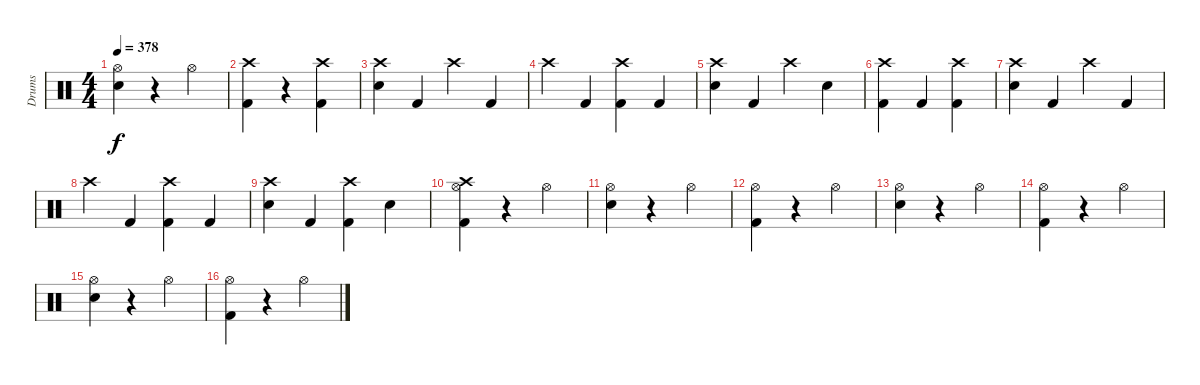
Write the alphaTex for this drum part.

\track ("Drums" "Drums") {instrument percussion}
\staff {score}
\articulation defaults
\ts (4 4)
\tempo 378
\clef neutral
\ks c
("Hi-Hat (open)" "Electric Snare (hit)").4{dy f} r.4 "Hi-Hat (open)".4 |
("Crash high (hit)" "Kick (hit) 2").4 r.4 ("Crash high (hit)" "Kick (hit) 2").4 |
("Crash high (hit)" "Electric Snare (hit)").4 "Kick (hit) 2".4 "Crash high (hit)".4 "Kick (hit) 2".4 |
"Crash high (hit)".4 "Kick (hit) 2".4 ("Crash high (hit)" "Kick (hit) 2").4 "Kick (hit) 2".4 |
("Crash high (hit)" "Electric Snare (hit)").4 "Kick (hit) 2".4 "Crash high (hit)".4 "Electric Snare (hit)".4 |
("Crash high (hit)" "Kick (hit) 2").4 "Kick (hit) 2".4 ("Crash high (hit)" "Kick (hit) 2").4 |
("Crash high (hit)" "Electric Snare (hit)").4 "Kick (hit) 2".4 "Crash high (hit)".4 "Kick (hit) 2".4 |
"Crash high (hit)".4 "Kick (hit) 2".4 ("Crash high (hit)" "Kick (hit) 2").4 "Kick (hit) 2".4 |
("Crash high (hit)" "Electric Snare (hit)").4 "Kick (hit) 2".4 ("Crash high (hit)" "Kick (hit) 2").4 "Electric Snare (hit)".4 |
("Crash high (hit)" "Hi-Hat (open)" "Kick (hit) 2").4 r.4 "Hi-Hat (open)".4 |
("Hi-Hat (open)" "Electric Snare (hit)").4 r.4 "Hi-Hat (open)".4 |
("Hi-Hat (open)" "Kick (hit) 2").4 r.4 "Hi-Hat (open)".4 |
("Hi-Hat (open)" "Electric Snare (hit)").4 r.4 "Hi-Hat (open)".4 |
("Hi-Hat (open)" "Kick (hit) 2").4 r.4 "Hi-Hat (open)".4 |
("Hi-Hat (open)" "Electric Snare (hit)").4 r.4 "Hi-Hat (open)".4 |
("Hi-Hat (open)" "Kick (hit) 2").4 r.4 "Hi-Hat (open)".4
